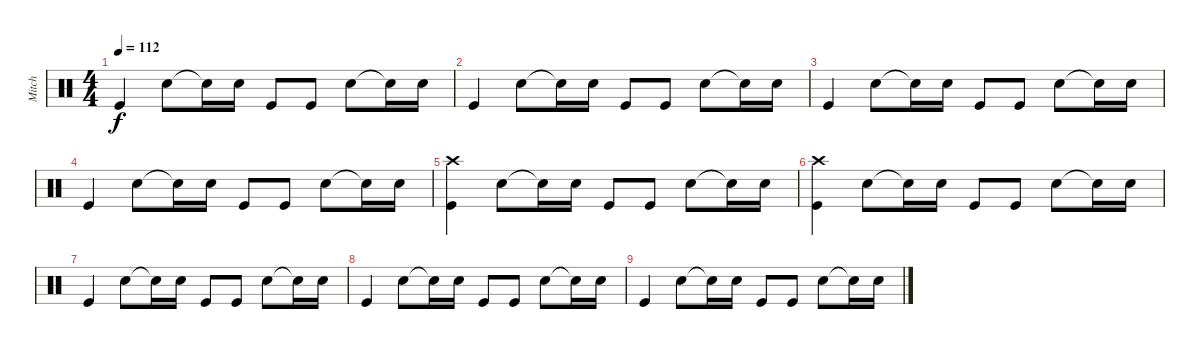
\track ("Mitch" "Mitch") {instrument percussion}
\staff {score}
\articulation defaults
\ts (4 4)
\tempo 112
\clef neutral
\ks c "Kick (hit)".4{dy f} "Electric Snare (hit)".8 "Electric Snare (hit)"{t}.16 "Electric Snare (hit)".16 "Kick (hit)".8 "Kick (hit)".8 "Electric Snare (hit)".8 "Snare (hit)"{t}.16 "Electric Snare (hit)".16
|
"Kick (hit)".4 "Electric Snare (hit)".8 "Electric Snare (hit)"{t}.16 "Electric Snare (hit)".16 "Kick (hit)".8 "Kick (hit)".8 "Electric Snare (hit)".8 "Snare (hit)"{t}.16 "Electric Snare (hit)".16 |
"Kick (hit)".4 "Electric Snare (hit)".8 "Electric Snare (hit)"{t}.16 "Electric Snare (hit)".16 "Kick (hit)".8 "Kick (hit)".8 "Electric Snare (hit)".8 "Snare (hit)"{t}.16 "Electric Snare (hit)".16 |
"Kick (hit)".4 "Electric Snare (hit)".8 "Electric Snare (hit)"{t}.16 "Electric Snare (hit)".16 "Kick (hit)".8 "Kick (hit)".8 "Electric Snare (hit)".8 "Snare (hit)"{t}.16 "Electric Snare (hit)".16 |
("Crash high (hit)" "Kick (hit)").4 "Electric Snare (hit)".8 "Electric Snare (hit)"{t}.16 "Electric Snare (hit)".16 "Kick (hit)".8 "Kick (hit)".8 "Electric Snare (hit)".8 "Snare (hit)"{t}.16 "Electric Snare (hit)".16 |
("Crash high (hit)" "Kick (hit)").4 "Electric Snare (hit)".8 "Electric Snare (hit)"{t}.16 "Electric Snare (hit)".16 "Kick (hit)".8 "Kick (hit)".8 "Electric Snare (hit)".8 "Snare (hit)"{t}.16 "Electric Snare (hit)".16 |
"Kick (hit)".4 "Electric Snare (hit)".8 "Electric Snare (hit)"{t}.16 "Electric Snare (hit)".16 "Kick (hit)".8 "Kick (hit)".8 "Electric Snare (hit)".8 "Snare (hit)"{t}.16 "Electric Snare (hit)".16 |
"Kick (hit)".4 "Electric Snare (hit)".8 "Electric Snare (hit)"{t}.16 "Electric Snare (hit)".16 "Kick (hit)".8 "Kick (hit)".8 "Electric Snare (hit)".8 "Snare (hit)"{t}.16 "Electric Snare (hit)".16 |
"Kick (hit)".4 "Electric Snare (hit)".8 "Electric Snare (hit)"{t}.16 "Electric Snare (hit)".16 "Kick (hit)".8 "Kick (hit)".8 "Electric Snare (hit)".8 "Snare (hit)"{t}.16 "Electric Snare (hit)".16
